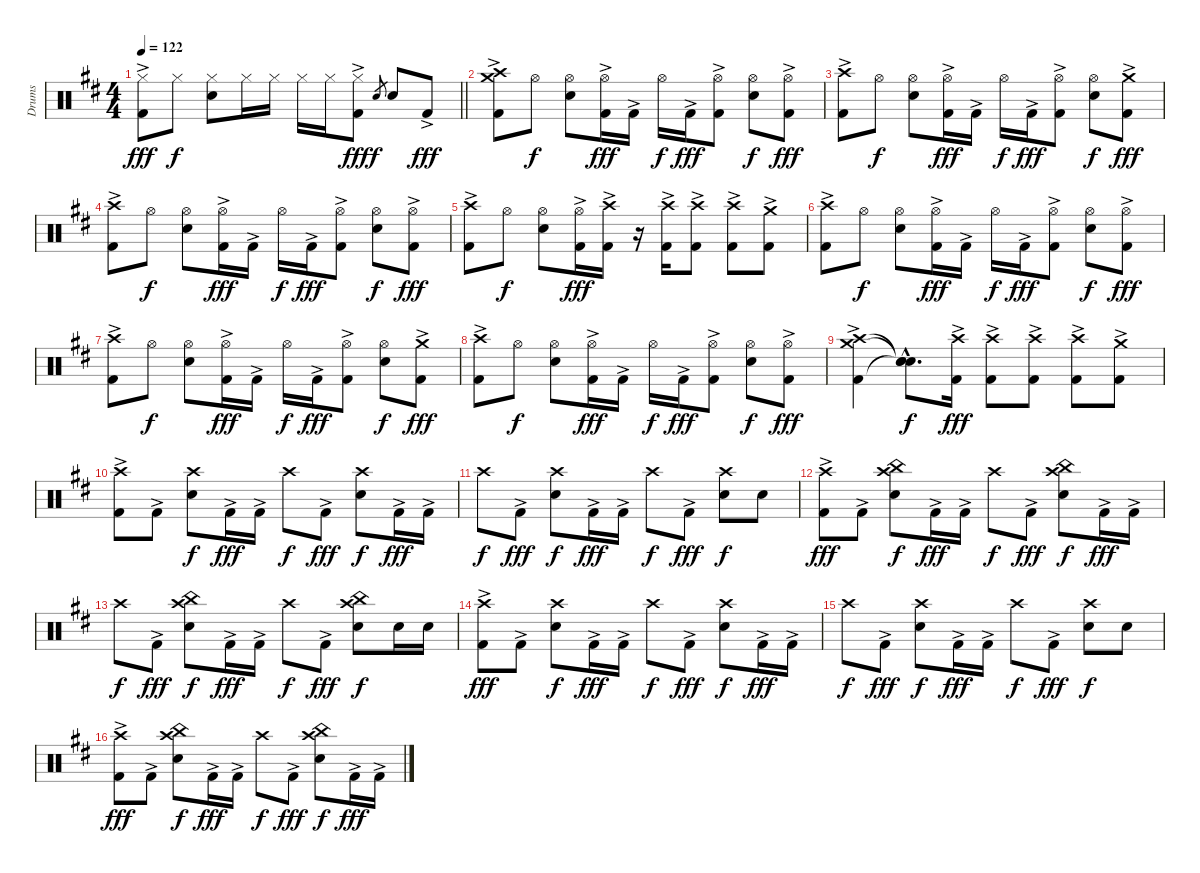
\track ("Drums" "Drums") {instrument percussion}
\staff {score}
\articulation defaults
\ts (4 4)
\tempo 122
\clef neutral
\barLineRight lightlight
\ks bminor
("Hi-Hat (closed)" "Kick (hit) 2"{ac}).8{dy fff} "Hi-Hat (closed)".8{dy f} ("Hi-Hat (closed)" "Snare (hit) 2").8 "Hi-Hat (closed)".16 "Hi-Hat (closed)".16 "Hi-Hat (closed)".16 "Hi-Hat (closed)".16 ("Hi-Hat (closed)" "Kick (hit) 2"{ac}).8{dy fff} "Snare (hit) 2".8{gr dy f} "Snare (hit) 2".8 "Kick (hit) 2"{ac}.8{dy fff} |
("Crash high (hit)" "Crash medium (hit)" "Kick (hit) 2"{ac}).8 "Hi-Hat (open)".8{dy f} ("Hi-Hat (open)" "Snare (hit) 2").8 ("Hi-Hat (open)" "Kick (hit) 2"{ac}).16{dy fff} "Kick (hit) 2"{ac}.16 "Hi-Hat (open)".16{dy f} "Kick (hit) 2"{ac}.16{dy fff} ("Hi-Hat (open)" "Kick (hit) 2"{ac}).8 ("Hi-Hat (open)" "Snare (hit) 2").8{dy f} ("Hi-Hat (open)" "Kick (hit) 2"{ac}).8{dy fff} |
("Crash high (hit)" "Kick (hit) 2"{ac}).8 "Hi-Hat (open)".8{dy f} ("Hi-Hat (open)" "Snare (hit) 2").8 ("Hi-Hat (open)" "Kick (hit) 2"{ac}).16{dy fff} "Kick (hit) 2"{ac}.16 "Hi-Hat (open)".16{dy f} "Kick (hit) 2"{ac}.16{dy fff} ("Hi-Hat (open)" "Kick (hit) 2"{ac}).8 ("Hi-Hat (open)" "Snare (hit) 2").8{dy f} ("Crash medium (hit)" "Kick (hit) 2"{ac}).8{dy fff} |
("Crash high (hit)" "Kick (hit) 2"{ac}).8 "Hi-Hat (open)".8{dy f} ("Hi-Hat (open)" "Snare (hit) 2").8 ("Hi-Hat (open)" "Kick (hit) 2"{ac}).16{dy fff} "Kick (hit) 2"{ac}.16 "Hi-Hat (open)".16{dy f} "Kick (hit) 2"{ac}.16{dy fff} ("Hi-Hat (open)" "Kick (hit) 2"{ac}).8 ("Hi-Hat (open)" "Snare (hit) 2").8{dy f} ("Hi-Hat (open)" "Kick (hit) 2"{ac}).8{dy fff} |
("Crash high (hit)" "Kick (hit) 2"{ac}).8 "Hi-Hat (open)".8{dy f} ("Hi-Hat (open)" "Snare (hit) 2").8 ("Hi-Hat (open)" "Kick (hit) 2"{ac}).16{dy fff} ("Crash high (hit)" "Kick (hit) 2"{ac}).16 r.16 ("Crash high (hit)" "Kick (hit) 2"{ac}).16 ("Crash high (hit)" "Kick (hit) 2"{ac}).8 ("Crash high (hit)" "Kick (hit) 2"{ac}).8 ("Crash medium (hit)" "Kick (hit) 2"{ac}).8 |
("Crash high (hit)" "Kick (hit) 2"{ac}).8 "Hi-Hat (open)".8{dy f} ("Hi-Hat (open)" "Snare (hit) 2").8 ("Hi-Hat (open)" "Kick (hit) 2"{ac}).16{dy fff} "Kick (hit) 2"{ac}.16 "Hi-Hat (open)".16{dy f} "Kick (hit) 2"{ac}.16{dy fff} ("Hi-Hat (open)" "Kick (hit) 2"{ac}).8 ("Hi-Hat (open)" "Snare (hit) 2").8{dy f} ("Hi-Hat (open)" "Kick (hit) 2"{ac}).8{dy fff} |
("Crash high (hit)" "Kick (hit) 2"{ac}).8 "Hi-Hat (open)".8{dy f} ("Hi-Hat (open)" "Snare (hit) 2").8 ("Hi-Hat (open)" "Kick (hit) 2"{ac}).16{dy fff} "Kick (hit) 2"{ac}.16 "Hi-Hat (open)".16{dy f} "Kick (hit) 2"{ac}.16{dy fff} ("Hi-Hat (open)" "Kick (hit) 2"{ac}).8 ("Hi-Hat (open)" "Snare (hit) 2").8{dy f} ("Crash medium (hit)" "Kick (hit) 2"{ac}).8{dy fff} |
("Crash high (hit)" "Kick (hit) 2"{ac}).8 "Hi-Hat (open)".8{dy f} ("Hi-Hat (open)" "Snare (hit) 2").8 ("Hi-Hat (open)" "Kick (hit) 2"{ac}).16{dy fff} "Kick (hit) 2"{ac}.16 "Hi-Hat (open)".16{dy f} "Kick (hit) 2"{ac}.16{dy fff} ("Hi-Hat (open)" "Kick (hit) 2"{ac}).8 ("Hi-Hat (open)" "Snare (hit) 2").8{dy f} ("Hi-Hat (open)" "Kick (hit) 2"{ac}).8{dy fff} |
("Crash high (hit)" "Crash medium (hit)" "Kick (hit) 2"{ac}).4 ("Snare (hit)"{hac t} "Snare (hit)"{hac t} "Snare (hit)"{hac t}).8{d dy f} ("Crash high (hit)" "Kick (hit) 2"{ac}).16{dy fff} ("Crash high (hit)" "Kick (hit) 2"{ac}).8 ("Crash high (hit)" "Kick (hit) 2"{ac}).8 ("Crash high (hit)" "Kick (hit) 2"{ac}).8 ("Crash medium (hit)" "Kick (hit) 2"{ac}).8 |
("Crash high (hit)" "Kick (hit) 2"{ac}).8 "Kick (hit) 2"{ac}.8 ("Crash high (hit)" "Snare (hit) 2").8{dy f} "Kick (hit) 2"{ac}.16{dy fff} "Kick (hit) 2"{ac}.16 "Crash high (hit)".8{dy f} "Kick (hit) 2"{ac}.8{dy fff} ("Crash high (hit)" "Snare (hit) 2").8{dy f} "Kick (hit) 2"{ac}.16{dy fff} "Kick (hit) 2"{ac}.16 |
"Crash high (hit)".8{dy f} "Kick (hit) 2"{ac}.8{dy fff} ("Crash high (hit)" "Snare (hit) 2").8{dy f} "Kick (hit) 2"{ac}.16{dy fff} "Kick (hit) 2"{ac}.16 "Crash high (hit)".8{dy f} "Kick (hit) 2"{ac}.8{dy fff} ("Crash high (hit)" "Snare (hit) 2").8{dy f} "Snare (hit) 2".8 |
("Crash high (hit)" "Kick (hit) 2"{ac}).8{dy fff} "Kick (hit) 2"{ac}.8 ("Crash high (hit)" "China (hit)" "Snare (hit) 2").8{dy f} "Kick (hit) 2"{ac}.16{dy fff} "Kick (hit) 2"{ac}.16 "Crash high (hit)".8{dy f} "Kick (hit) 2"{ac}.8{dy fff} ("Crash high (hit)" "China (hit)" "Snare (hit) 2").8{dy f} "Kick (hit) 2"{ac}.16{dy fff} "Kick (hit) 2"{ac}.16 |
"Crash high (hit)".8{dy f} "Kick (hit) 2"{ac}.8{dy fff} ("Crash high (hit)" "China (hit)" "Snare (hit) 2").8{dy f} "Kick (hit) 2"{ac}.16{dy fff} "Kick (hit) 2"{ac}.16 "Crash high (hit)".8{dy f} "Kick (hit) 2"{ac}.8{dy fff} ("Crash high (hit)" "China (hit)" "Snare (hit) 2").8{dy f} "Snare (hit) 2".16 "Snare (hit) 2".16 |
("Crash high (hit)" "Kick (hit) 2"{ac}).8{dy fff} "Kick (hit) 2"{ac}.8 ("Crash high (hit)" "Snare (hit) 2").8{dy f} "Kick (hit) 2"{ac}.16{dy fff} "Kick (hit) 2"{ac}.16 "Crash high (hit)".8{dy f} "Kick (hit) 2"{ac}.8{dy fff} ("Crash high (hit)" "Snare (hit) 2").8{dy f} "Kick (hit) 2"{ac}.16{dy fff} "Kick (hit) 2"{ac}.16 |
"Crash high (hit)".8{dy f} "Kick (hit) 2"{ac}.8{dy fff} ("Crash high (hit)" "Snare (hit) 2").8{dy f} "Kick (hit) 2"{ac}.16{dy fff} "Kick (hit) 2"{ac}.16 "Crash high (hit)".8{dy f} "Kick (hit) 2"{ac}.8{dy fff} ("Crash high (hit)" "Snare (hit) 2").8{dy f} "Snare (hit) 2".8 |
("Crash high (hit)" "Kick (hit) 2"{ac}).8{dy fff} "Kick (hit) 2"{ac}.8 ("Crash high (hit)" "China (hit)" "Snare (hit) 2").8{dy f} "Kick (hit) 2"{ac}.16{dy fff} "Kick (hit) 2"{ac}.16 "Crash high (hit)".8{dy f} "Kick (hit) 2"{ac}.8{dy fff} ("Crash high (hit)" "China (hit)" "Snare (hit) 2").8{dy f} "Kick (hit) 2"{ac}.16{dy fff} "Kick (hit) 2"{ac}.16
